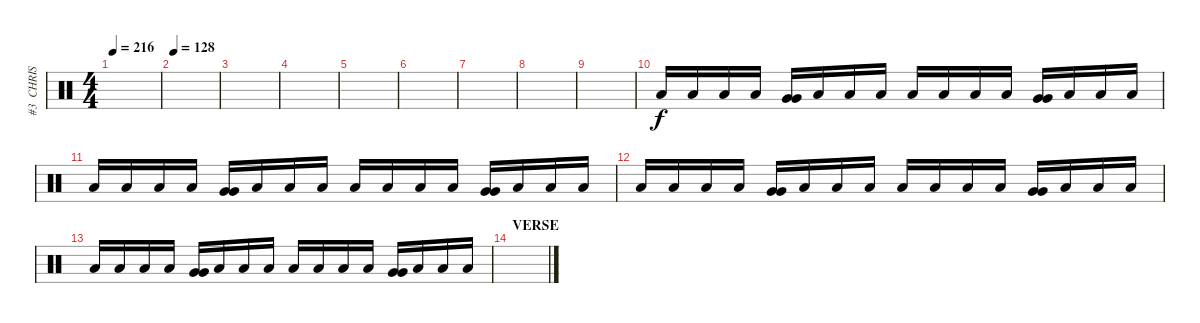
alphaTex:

\track ("#3  CHRIS FEHN" "#3  CHRIS ") {instrument percussion}
\staff {score}
\articulation defaults
\ts (4 4)
\tempo 216
\clef neutral
\ks c
|
\tempo 128
|
|
|
\section ("" "")
|
|
|
|
|
"Low Floor Tom (hit)".16 "Low Floor Tom (hit)".16 "Low Floor Tom (hit)".16 "Low Floor Tom (hit)".16 ("Very Low Tom (hit)" "Very Low Tom (hit)").16 "Low Floor Tom (hit)".16 "Low Floor Tom (hit)".16 "Low Floor Tom (hit)".16 "Low Floor Tom (hit)".16 "Low Floor Tom (hit)".16 "Low Floor Tom (hit)".16 "Low Floor Tom (hit)".16 ("Very Low Tom (hit)" "Very Low Tom (hit)").16 "Low Floor Tom (hit)".16 "Low Floor Tom (hit)".16 "Low Floor Tom (hit)".16 |
"Low Floor Tom (hit)".16 "Low Floor Tom (hit)".16 "Low Floor Tom (hit)".16 "Low Floor Tom (hit)".16 ("Very Low Tom (hit)" "Very Low Tom (hit)").16 "Low Floor Tom (hit)".16 "Low Floor Tom (hit)".16 "Low Floor Tom (hit)".16 "Low Floor Tom (hit)".16 "Low Floor Tom (hit)".16 "Low Floor Tom (hit)".16 "Low Floor Tom (hit)".16 ("Very Low Tom (hit)" "Very Low Tom (hit)").16 "Low Floor Tom (hit)".16 "Low Floor Tom (hit)".16 "Low Floor Tom (hit)".16 |
"Low Floor Tom (hit)".16 "Low Floor Tom (hit)".16 "Low Floor Tom (hit)".16 "Low Floor Tom (hit)".16 ("Very Low Tom (hit)" "Very Low Tom (hit)").16 "Low Floor Tom (hit)".16 "Low Floor Tom (hit)".16 "Low Floor Tom (hit)".16 "Low Floor Tom (hit)".16 "Low Floor Tom (hit)".16 "Low Floor Tom (hit)".16 "Low Floor Tom (hit)".16 ("Very Low Tom (hit)" "Very Low Tom (hit)").16 "Low Floor Tom (hit)".16 "Low Floor Tom (hit)".16 "Low Floor Tom (hit)".16 |
"Low Floor Tom (hit)".16 "Low Floor Tom (hit)".16 "Low Floor Tom (hit)".16 "Low Floor Tom (hit)".16 ("Very Low Tom (hit)" "Very Low Tom (hit)").16 "Low Floor Tom (hit)".16 "Low Floor Tom (hit)".16 "Low Floor Tom (hit)".16 "Low Floor Tom (hit)".16 "Low Floor Tom (hit)".16 "Low Floor Tom (hit)".16 "Low Floor Tom (hit)".16 ("Very Low Tom (hit)" "Very Low Tom (hit)").16 "Low Floor Tom (hit)".16 "Low Floor Tom (hit)".16 "Low Floor Tom (hit)".16 |
\section ("" "VERSE")
